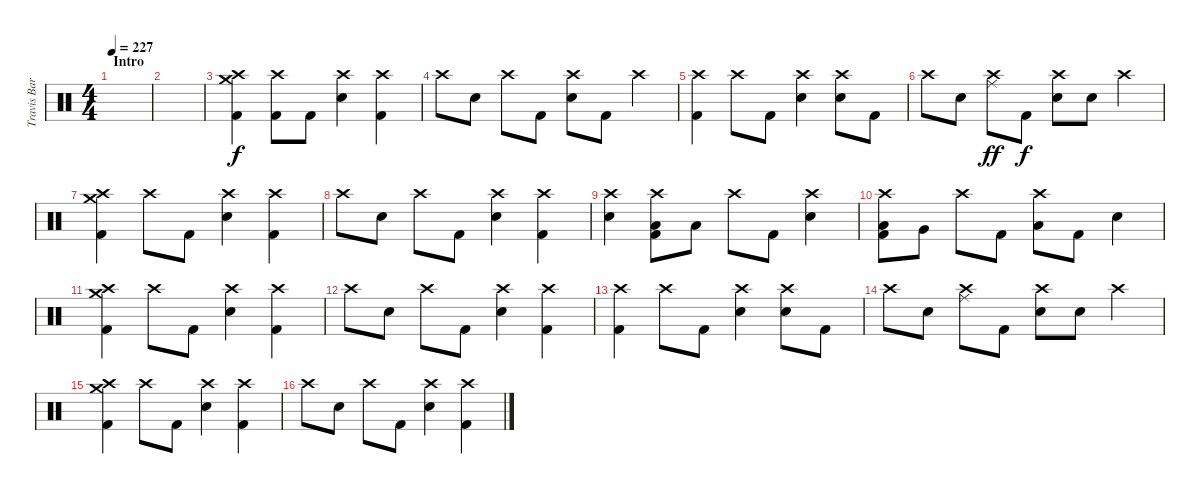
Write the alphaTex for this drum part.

\track ("Travis Barker - Batería" "Travis Bar") {instrument percussion}
\staff {score}
\articulation defaults
\ts (4 4)
\section ("" "Intro")
\tempo 227
\clef neutral
\ks c
|
|
("Crash medium (hit)" "Crash high (hit)" "Kick (hit) 2").4 ("Crash high (hit)" "Kick (hit) 2").8 "Kick (hit) 2".8 ("Crash high (hit)" "Electric Snare (hit)").4 ("Crash high (hit)" "Kick (hit) 2").4 |
"Crash high (hit)".8 "Electric Snare (hit)".8 "Crash high (hit)".8 "Kick (hit) 2".8 ("Crash high (hit)" "Electric Snare (hit)").8 "Kick (hit) 2".8 "Crash high (hit)".4 |
("Crash high (hit)" "Kick (hit) 2").4 "Crash high (hit)".8 "Kick (hit) 2".8 ("Crash high (hit)" "Electric Snare (hit)").4 ("Crash high (hit)" "Electric Snare (hit)").8 "Kick (hit) 2".8 |
"Crash high (hit)".8 "Electric Snare (hit)".8 ("Crash high (hit)" "Ride (middle)").8{dy ff} "Kick (hit) 2".8{dy f} ("Crash high (hit)" "Electric Snare (hit)").8 "Electric Snare (hit)".8 "Crash high (hit)".4 |
("Crash medium (hit)" "Crash high (hit)" "Kick (hit) 2").4 "Crash high (hit)".8 "Kick (hit) 2".8 ("Crash high (hit)" "Electric Snare (hit)").4 ("Crash high (hit)" "Kick (hit) 2").4 |
"Crash high (hit)".8 "Electric Snare (hit)".8 "Crash high (hit)".8 "Kick (hit) 2".8 ("Crash high (hit)" "Electric Snare (hit)").4 ("Crash high (hit)" "Kick (hit) 2").4 |
("Crash high (hit)" "Electric Snare (hit)").4 ("Crash high (hit)" "Low Tom (hit)" "Kick (hit) 2").8 "Low Tom (hit)".8 "Crash high (hit)".8 "Kick (hit) 2".8 ("Crash high (hit)" "Electric Snare (hit)").4 |
("Crash high (hit)" "Low Tom (hit)" "Kick (hit) 2").8 "Very Low Tom (hit)".8 "Crash high (hit)".8 "Kick (hit) 2".8 ("Crash high (hit)" "Low Floor Tom (hit)").8 "Kick (hit) 2".8 "Electric Snare (hit)".4 |
("Crash medium (hit)" "Crash high (hit)" "Kick (hit) 2").4 "Crash high (hit)".8 "Kick (hit) 2".8 ("Crash high (hit)" "Electric Snare (hit)").4 ("Crash high (hit)" "Kick (hit) 2").4 |
"Crash high (hit)".8 "Electric Snare (hit)".8 "Crash high (hit)".8 "Kick (hit) 2".8 ("Crash high (hit)" "Electric Snare (hit)").4 ("Crash high (hit)" "Kick (hit) 2").4 |
("Crash high (hit)" "Kick (hit) 2").4 "Crash high (hit)".8 "Kick (hit) 2".8 ("Crash high (hit)" "Electric Snare (hit)").4 ("Crash high (hit)" "Electric Snare (hit)").8 "Kick (hit) 2".8 |
"Crash high (hit)".8 "Electric Snare (hit)".8 ("Crash high (hit)" "Ride (middle)").8 "Kick (hit) 2".8 ("Crash high (hit)" "Electric Snare (hit)").8 "Electric Snare (hit)".8 "Crash high (hit)".4 |
("Crash medium (hit)" "Crash high (hit)" "Kick (hit) 2").4 "Crash high (hit)".8 "Kick (hit) 2".8 ("Crash high (hit)" "Electric Snare (hit)").4 ("Crash high (hit)" "Kick (hit) 2").4 |
"Crash high (hit)".8 "Electric Snare (hit)".8 "Crash high (hit)".8 "Kick (hit) 2".8 ("Crash high (hit)" "Electric Snare (hit)").4 ("Crash high (hit)" "Kick (hit) 2").4
